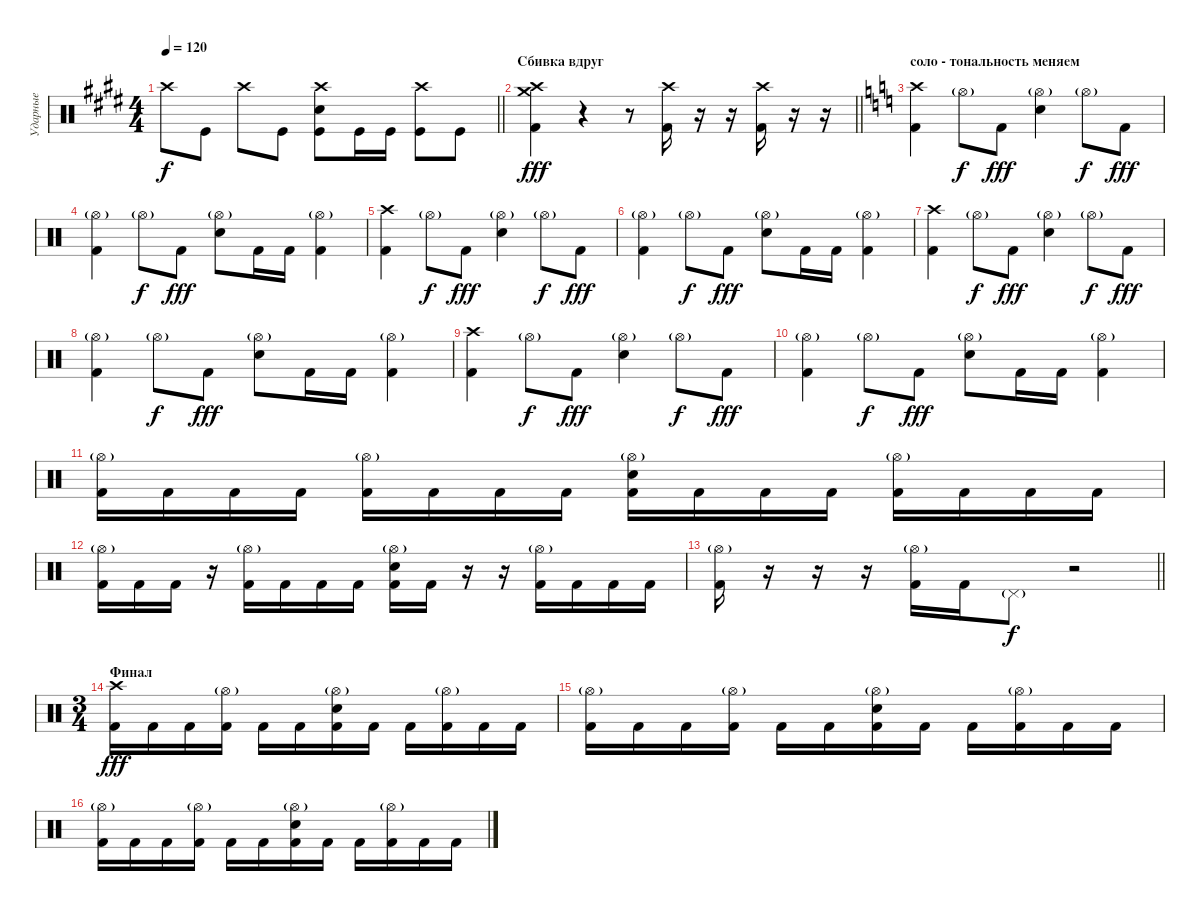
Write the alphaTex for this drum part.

\track ("Ударные" "Ударные") {instrument percussion}
\staff {score}
\articulation defaults
\ts (4 4)
\tempo 120
\clef neutral
\barLineRight lightlight
\ks e "Crash high (hit)".8{dy f} "Kick (hit)".8 "Crash high (hit)".8 "Kick (hit)".8
("Crash high (hit)" "Electric Snare (hit)" "Kick (hit)").8 "Kick (hit)".16 "Kick (hit)".16 ("Crash high (hit)" "Kick (hit)").8 "Kick (hit)".8 |
\section ("" "Сбивка вдруг")
\barLineRight lightlight
("Crash high (hit)" "Crash medium (hit)" "Kick (hit) 2").4{dy fff} r.4 r.8 ("Crash high (hit)" "Kick (hit) 2").16 r.16 r.16 ("Crash high (hit)" "Kick (hit) 2").16 r.16 r.16 |
\section ("" "соло - тональность меняем")
\ks c
("Crash high (hit)" "Kick (hit) 2").4 "Hi-Hat (open)"{g}.8{dy f} "Kick (hit) 2".8{dy fff} ("Hi-Hat (open)"{g} "Electric Snare (hit)").4 "Hi-Hat (open)"{g}.8{dy f} "Kick (hit) 2".8{dy fff} |
("Hi-Hat (open)"{g} "Kick (hit) 2").4 "Hi-Hat (open)"{g}.8{dy f} "Kick (hit) 2".8{dy fff} ("Hi-Hat (open)"{g} "Electric Snare (hit)").8 "Kick (hit) 2".16 "Kick (hit) 2".16 ("Hi-Hat (open)"{g} "Kick (hit) 2").4 |
("Crash high (hit)" "Kick (hit) 2").4 "Hi-Hat (open)"{g}.8{dy f} "Kick (hit) 2".8{dy fff} ("Hi-Hat (open)"{g} "Electric Snare (hit)").4 "Hi-Hat (open)"{g}.8{dy f} "Kick (hit) 2".8{dy fff} |
("Hi-Hat (open)"{g} "Kick (hit) 2").4 "Hi-Hat (open)"{g}.8{dy f} "Kick (hit) 2".8{dy fff} ("Hi-Hat (open)"{g} "Electric Snare (hit)").8 "Kick (hit) 2".16 "Kick (hit) 2".16 ("Hi-Hat (open)"{g} "Kick (hit) 2").4 |
("Crash high (hit)" "Kick (hit) 2").4 "Hi-Hat (open)"{g}.8{dy f} "Kick (hit) 2".8{dy fff} ("Hi-Hat (open)"{g} "Electric Snare (hit)").4 "Hi-Hat (open)"{g}.8{dy f} "Kick (hit) 2".8{dy fff} |
("Hi-Hat (open)"{g} "Kick (hit) 2").4 "Hi-Hat (open)"{g}.8{dy f} "Kick (hit) 2".8{dy fff} ("Hi-Hat (open)"{g} "Electric Snare (hit)").8 "Kick (hit) 2".16 "Kick (hit) 2".16 ("Hi-Hat (open)"{g} "Kick (hit) 2").4 |
("Crash high (hit)" "Kick (hit) 2").4 "Hi-Hat (open)"{g}.8{dy f} "Kick (hit) 2".8{dy fff} ("Hi-Hat (open)"{g} "Electric Snare (hit)").4 "Hi-Hat (open)"{g}.8{dy f} "Kick (hit) 2".8{dy fff} |
("Hi-Hat (open)"{g} "Kick (hit) 2").4 "Hi-Hat (open)"{g}.8{dy f} "Kick (hit) 2".8{dy fff} ("Hi-Hat (open)"{g} "Electric Snare (hit)").8 "Kick (hit) 2".16 "Kick (hit) 2".16 ("Hi-Hat (open)"{g} "Kick (hit) 2").4 |
("Hi-Hat (open)"{g} "Kick (hit) 2").16 "Kick (hit) 2".16 "Kick (hit) 2".16 "Kick (hit) 2".16 ("Hi-Hat (open)"{g} "Kick (hit) 2").16 "Kick (hit) 2".16 "Kick (hit) 2".16 "Kick (hit) 2".16 ("Hi-Hat (open)"{g} "Electric Snare (hit)" "Kick (hit) 2").16 "Kick (hit) 2".16 "Kick (hit) 2".16 "Kick (hit) 2".16 ("Hi-Hat (open)"{g} "Kick (hit) 2").16 "Kick (hit) 2".16 "Kick (hit) 2".16 "Kick (hit) 2".16 |
("Hi-Hat (open)"{g} "Kick (hit) 2").16 "Kick (hit) 2".16 "Kick (hit) 2".16 r.16 ("Hi-Hat (open)"{g} "Kick (hit) 2").16 "Kick (hit) 2".16 "Kick (hit) 2".16 "Kick (hit) 2".16 ("Hi-Hat (open)"{g} "Electric Snare (hit)" "Kick (hit) 2").16 "Kick (hit) 2".16 r.16 r.16 ("Hi-Hat (open)"{g} "Kick (hit) 2").16 "Kick (hit) 2".16 "Kick (hit) 2".16 "Kick (hit) 2".16 |
\barLineRight lightlight
("Hi-Hat (open)"{g} "Kick (hit) 2").16 r.16 r.16 r.16 ("Hi-Hat (open)"{g} "Kick (hit) 2").16 "Kick (hit) 2".16 "Pedal Hi-Hat (hit)"{g}.8{dy f} r.2 |
\ts (3 4)
\section ("" "Финал")
("Crash high (hit)" "Kick (hit) 2").16{dy fff} "Kick (hit) 2".16 "Kick (hit) 2".16 ("Hi-Hat (open)"{g} "Kick (hit) 2").16 "Kick (hit) 2".16 "Kick (hit) 2".16 ("Hi-Hat (open)"{g} "Electric Snare (hit)" "Kick (hit) 2").16 "Kick (hit) 2".16 "Kick (hit) 2".16 ("Hi-Hat (open)"{g} "Kick (hit) 2").16 "Kick (hit) 2".16 "Kick (hit) 2".16 |
("Hi-Hat (open)"{g} "Kick (hit) 2").16 "Kick (hit) 2".16 "Kick (hit) 2".16 ("Hi-Hat (open)"{g} "Kick (hit) 2").16 "Kick (hit) 2".16 "Kick (hit) 2".16 ("Hi-Hat (open)"{g} "Electric Snare (hit)" "Kick (hit) 2").16 "Kick (hit) 2".16 "Kick (hit) 2".16 ("Hi-Hat (open)"{g} "Kick (hit) 2").16 "Kick (hit) 2".16 "Kick (hit) 2".16 |
("Hi-Hat (open)"{g} "Kick (hit) 2").16 "Kick (hit) 2".16 "Kick (hit) 2".16 ("Hi-Hat (open)"{g} "Kick (hit) 2").16 "Kick (hit) 2".16 "Kick (hit) 2".16 ("Hi-Hat (open)"{g} "Electric Snare (hit)" "Kick (hit) 2").16 "Kick (hit) 2".16 "Kick (hit) 2".16 ("Hi-Hat (open)"{g} "Kick (hit) 2").16 "Kick (hit) 2".16 "Kick (hit) 2".16
